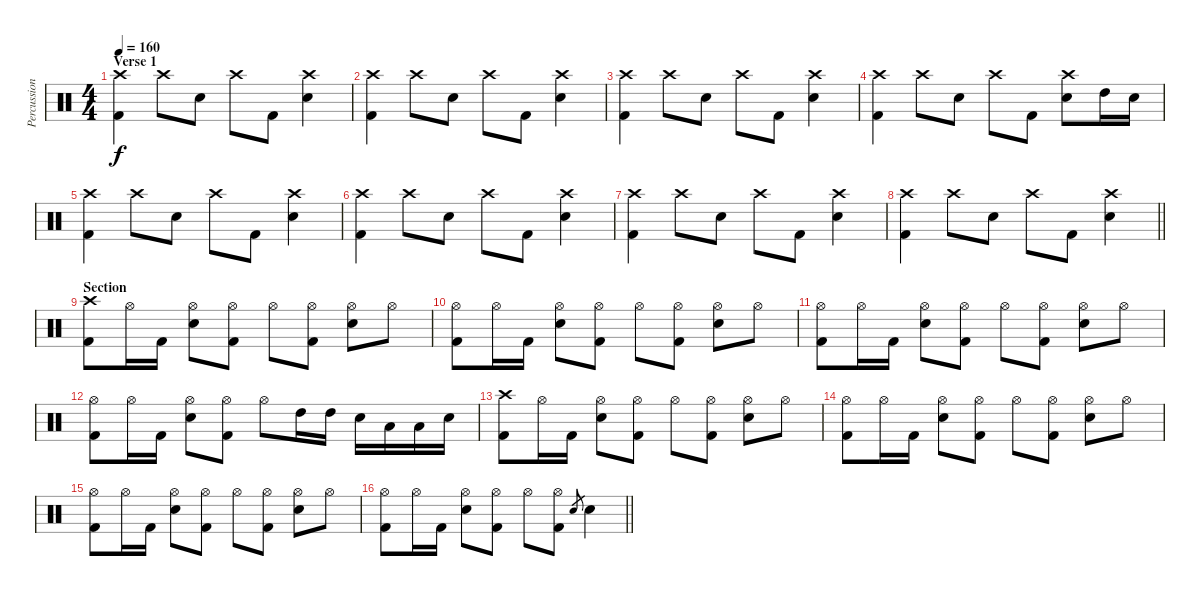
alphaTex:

\track ("Percussion" "Percussion") {instrument percussion}
\staff {score}
\articulation defaults
\ts (4 4)
\section ("" "Verse 1")
\tempo 160
\clef neutral
\ks c
("Kick (hit) 2" "Crash high (hit)").4{dy f} "Crash high (hit)".8 "Snare (hit) 2".8 "Crash high (hit)".8 "Kick (hit) 2".8 ("Snare (hit) 2" "Crash high (hit)").4 |
("Kick (hit) 2" "Crash high (hit)").4 "Crash high (hit)".8 "Snare (hit) 2".8 "Crash high (hit)".8 "Kick (hit) 2".8 ("Snare (hit) 2" "Crash high (hit)").4 |
("Kick (hit) 2" "Crash high (hit)").4 "Crash high (hit)".8 "Snare (hit) 2".8 "Crash high (hit)".8 "Kick (hit) 2".8 ("Snare (hit) 2" "Crash high (hit)").4 |
("Kick (hit) 2" "Crash high (hit)").4 "Crash high (hit)".8 "Snare (hit) 2".8 "Crash high (hit)".8 "Kick (hit) 2".8 ("Snare (hit) 2" "Crash high (hit)").8 "High Tom (hit)".16 "Snare (hit) 2".16 |
("Kick (hit) 2" "Crash high (hit)").4 "Crash high (hit)".8 "Snare (hit) 2".8 "Crash high (hit)".8 "Kick (hit) 2".8 ("Snare (hit) 2" "Crash high (hit)").4 |
("Kick (hit) 2" "Crash high (hit)").4 "Crash high (hit)".8 "Snare (hit) 2".8 "Crash high (hit)".8 "Kick (hit) 2".8 ("Snare (hit) 2" "Crash high (hit)").4 |
("Kick (hit) 2" "Crash high (hit)").4 "Crash high (hit)".8 "Snare (hit) 2".8 "Crash high (hit)".8 "Kick (hit) 2".8 ("Snare (hit) 2" "Crash high (hit)").4 |
\barLineRight lightlight
("Kick (hit) 2" "Crash high (hit)").4 "Crash high (hit)".8 "Snare (hit) 2".8 "Crash high (hit)".8 "Kick (hit) 2".8 ("Snare (hit) 2" "Crash high (hit)").4 |
\section ("" "Section")
("Crash high (hit)" "Kick (hit) 2").8 "Hi-Hat (open)".16 "Kick (hit) 2".16 ("Hi-Hat (open)" "Snare (hit) 2").8 ("Kick (hit) 2" "Hi-Hat (open)").8 "Hi-Hat (open)".8 ("Kick (hit) 2" "Hi-Hat (open)").8 ("Snare (hit) 2" "Hi-Hat (open)").8 "Hi-Hat (open)".8 |
("Hi-Hat (open)" "Kick (hit) 2").8 "Hi-Hat (open)".16 "Kick (hit) 2".16 ("Hi-Hat (open)" "Snare (hit) 2").8 ("Kick (hit) 2" "Hi-Hat (open)").8 "Hi-Hat (open)".8 ("Kick (hit) 2" "Hi-Hat (open)").8 ("Snare (hit) 2" "Hi-Hat (open)").8 "Hi-Hat (open)".8 |
("Hi-Hat (open)" "Kick (hit) 2").8 "Hi-Hat (open)".16 "Kick (hit) 2".16 ("Hi-Hat (open)" "Snare (hit) 2").8 ("Kick (hit) 2" "Hi-Hat (open)").8 "Hi-Hat (open)".8 ("Kick (hit) 2" "Hi-Hat (open)").8 ("Snare (hit) 2" "Hi-Hat (open)").8 "Hi-Hat (open)".8 |
("Hi-Hat (open)" "Kick (hit) 2").8 "Hi-Hat (open)".16 "Kick (hit) 2".16 ("Hi-Hat (open)" "Snare (hit) 2").8 ("Kick (hit) 2" "Hi-Hat (open)").8 "Hi-Hat (open)".8 "High Tom (hit)".16 "High Tom (hit)".16 "Snare (hit) 2".16 "Low Tom (hit)".16 "Low Tom (hit)".16 "Snare (hit) 2".16 |
("Crash high (hit)" "Kick (hit) 2").8 "Hi-Hat (open)".16 "Kick (hit) 2".16 ("Hi-Hat (open)" "Snare (hit) 2").8 ("Kick (hit) 2" "Hi-Hat (open)").8 "Hi-Hat (open)".8 ("Kick (hit) 2" "Hi-Hat (open)").8 ("Snare (hit) 2" "Hi-Hat (open)").8 "Hi-Hat (open)".8 |
("Hi-Hat (open)" "Kick (hit) 2").8 "Hi-Hat (open)".16 "Kick (hit) 2".16 ("Hi-Hat (open)" "Snare (hit) 2").8 ("Kick (hit) 2" "Hi-Hat (open)").8 "Hi-Hat (open)".8 ("Kick (hit) 2" "Hi-Hat (open)").8 ("Snare (hit) 2" "Hi-Hat (open)").8 "Hi-Hat (open)".8 |
("Hi-Hat (open)" "Kick (hit) 2").8 "Hi-Hat (open)".16 "Kick (hit) 2".16 ("Hi-Hat (open)" "Snare (hit) 2").8 ("Kick (hit) 2" "Hi-Hat (open)").8 "Hi-Hat (open)".8 ("Kick (hit) 2" "Hi-Hat (open)").8 ("Snare (hit) 2" "Hi-Hat (open)").8 "Hi-Hat (open)".8 |
\barLineRight lightlight
("Hi-Hat (open)" "Kick (hit) 2").8 "Hi-Hat (open)".16 "Kick (hit) 2".16 ("Hi-Hat (open)" "Snare (hit) 2").8 ("Kick (hit) 2" "Hi-Hat (open)").8 "Hi-Hat (open)".8 ("Kick (hit) 2" "Hi-Hat (open)").8 "Snare (hit) 2".8{gr} "Snare (hit) 2".4
